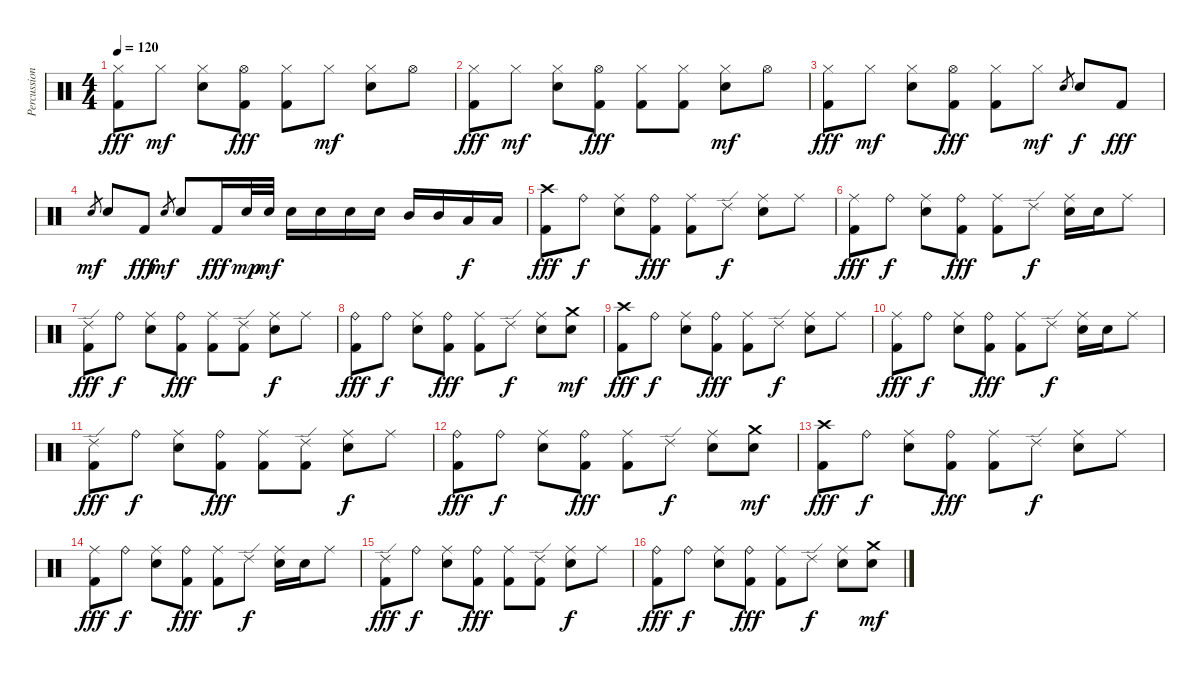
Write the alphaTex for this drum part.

\track ("Percussion" "Percussion") {instrument percussion}
\staff {score}
\articulation defaults
\ts (4 4)
\tempo 120
\clef neutral
\ks c
("Hi-Hat (closed)" "Kick (hit) 2").8{dy fff} "Hi-Hat (closed)".8{dy mf} ("Hi-Hat (closed)" "Electric Snare (hit)").8 ("Hi-Hat (open)" "Kick (hit) 2").8{dy fff} ("Hi-Hat (closed)" "Kick (hit) 2").8 "Hi-Hat (closed)".8{dy mf} ("Hi-Hat (closed)" "Electric Snare (hit)").8 "Hi-Hat (open)".8 |
("Hi-Hat (closed)" "Kick (hit) 2").8{dy fff} "Hi-Hat (closed)".8{dy mf} ("Hi-Hat (closed)" "Electric Snare (hit)").8 ("Hi-Hat (open)" "Kick (hit) 2").8{dy fff} ("Hi-Hat (closed)" "Kick (hit) 2").8 ("Hi-Hat (closed)" "Kick (hit) 2").8 ("Hi-Hat (closed)" "Electric Snare (hit)").8{dy mf} "Hi-Hat (open)".8 |
("Hi-Hat (closed)" "Kick (hit) 2").8{dy fff} "Hi-Hat (closed)".8{dy mf} ("Hi-Hat (closed)" "Electric Snare (hit)").8 ("Hi-Hat (open)" "Kick (hit) 2").8{dy fff} ("Hi-Hat (closed)" "Kick (hit) 2").8 "Hi-Hat (closed)".8{dy mf} "Electric Snare (hit)".8{gr} "Electric Snare (hit)".8{dy f} "Kick (hit) 2".8{dy fff} |
"Electric Snare (hit)".8{gr dy mf} "Electric Snare (hit)".8 "Kick (hit) 2".8{dy fff} "Electric Snare (hit)".8{gr dy mf} "Electric Snare (hit)".8 "Kick (hit) 2".16{dy fff} "Electric Snare (hit)".32{dy mp} "Electric Snare (hit)".32{dy mf} "Electric Snare (hit)".16 "Electric Snare (hit)".16 "Electric Snare (hit)".16 "Electric Snare (hit)".16 "Mid Tom (hit)".16 "Mid Tom (hit)".16 "Low Tom (hit)".16{dy f} "Low Tom (hit)".16 |
("Crash high (hit)" "Kick (hit) 2").8{dy fff} "Ride (bell)".8{dy f} ("Ride (middle)" "Electric Snare (hit)").8 ("Ride (bell)" "Kick (hit) 2").8{dy fff} ("Ride (middle)" "Kick (hit) 2").8 "Ride (edge) 2".8{dy f} ("Ride (middle)" "Electric Snare (hit)").8 "Ride (middle)".8 |
("Ride (middle)" "Kick (hit) 2").8{dy fff} "Ride (bell)".8{dy f} ("Ride (middle)" "Electric Snare (hit)").8 ("Ride (bell)" "Kick (hit) 2").8{dy fff} ("Ride (middle)" "Kick (hit) 2").8 "Ride (edge) 2".8{dy f} ("Ride (middle)" "Electric Snare (hit)").16 "Electric Snare (hit)".16 "Ride (middle)".8 |
("Ride (edge) 2" "Kick (hit) 2").8{dy fff} "Ride (bell)".8{dy f} ("Ride (middle)" "Electric Snare (hit)").8 ("Ride (bell)" "Kick (hit) 2").8{dy fff} ("Ride (middle)" "Kick (hit) 2").8 ("Ride (edge) 2" "Kick (hit) 2").8 ("Ride (middle)" "Electric Snare (hit)").8{dy f} "Ride (middle)".8 |
("Ride (bell)" "Kick (hit) 2").8{dy fff} "Ride (bell)".8{dy f} ("Ride (middle)" "Electric Snare (hit)").8 ("Ride (bell)" "Kick (hit) 2").8{dy fff} ("Ride (middle)" "Kick (hit) 2").8 "Ride (edge) 2".8{dy f} ("Ride (middle)" "Electric Snare (hit)").8 ("Crash medium (hit)" "Electric Snare (hit)").8{dy mf} |
("Crash high (hit)" "Kick (hit) 2").8{dy fff} "Ride (bell)".8{dy f} ("Ride (middle)" "Electric Snare (hit)").8 ("Ride (bell)" "Kick (hit) 2").8{dy fff} ("Ride (middle)" "Kick (hit) 2").8 "Ride (edge) 2".8{dy f} ("Ride (middle)" "Electric Snare (hit)").8 "Ride (middle)".8 |
("Ride (middle)" "Kick (hit) 2").8{dy fff} "Ride (bell)".8{dy f} ("Ride (middle)" "Electric Snare (hit)").8 ("Ride (bell)" "Kick (hit) 2").8{dy fff} ("Ride (middle)" "Kick (hit) 2").8 "Ride (edge) 2".8{dy f} ("Ride (middle)" "Electric Snare (hit)").16 "Electric Snare (hit)".16 "Ride (middle)".8 |
("Ride (edge) 2" "Kick (hit) 2").8{dy fff} "Ride (bell)".8{dy f} ("Ride (middle)" "Electric Snare (hit)").8 ("Ride (bell)" "Kick (hit) 2").8{dy fff} ("Ride (middle)" "Kick (hit) 2").8 ("Ride (edge) 2" "Kick (hit) 2").8 ("Ride (middle)" "Electric Snare (hit)").8{dy f} "Ride (middle)".8 |
("Ride (bell)" "Kick (hit) 2").8{dy fff} "Ride (bell)".8{dy f} ("Ride (middle)" "Electric Snare (hit)").8 ("Ride (bell)" "Kick (hit) 2").8{dy fff} ("Ride (middle)" "Kick (hit) 2").8 "Ride (edge) 2".8{dy f} ("Ride (middle)" "Electric Snare (hit)").8 ("Crash medium (hit)" "Electric Snare (hit)").8{dy mf} |
("Crash high (hit)" "Kick (hit) 2").8{dy fff} "Ride (bell)".8{dy f} ("Ride (middle)" "Electric Snare (hit)").8 ("Ride (bell)" "Kick (hit) 2").8{dy fff} ("Ride (middle)" "Kick (hit) 2").8 "Ride (edge) 2".8{dy f} ("Ride (middle)" "Electric Snare (hit)").8 "Ride (middle)".8 |
("Ride (middle)" "Kick (hit) 2").8{dy fff} "Ride (bell)".8{dy f} ("Ride (middle)" "Electric Snare (hit)").8 ("Ride (bell)" "Kick (hit) 2").8{dy fff} ("Ride (middle)" "Kick (hit) 2").8 "Ride (edge) 2".8{dy f} ("Ride (middle)" "Electric Snare (hit)").16 "Electric Snare (hit)".16 "Ride (middle)".8 |
("Ride (edge) 2" "Kick (hit) 2").8{dy fff} "Ride (bell)".8{dy f} ("Ride (middle)" "Electric Snare (hit)").8 ("Ride (bell)" "Kick (hit) 2").8{dy fff} ("Ride (middle)" "Kick (hit) 2").8 ("Ride (edge) 2" "Kick (hit) 2").8 ("Ride (middle)" "Electric Snare (hit)").8{dy f} "Ride (middle)".8 |
("Ride (bell)" "Kick (hit) 2").8{dy fff} "Ride (bell)".8{dy f} ("Ride (middle)" "Electric Snare (hit)").8 ("Ride (bell)" "Kick (hit) 2").8{dy fff} ("Ride (middle)" "Kick (hit) 2").8 "Ride (edge) 2".8{dy f} ("Ride (middle)" "Electric Snare (hit)").8 ("Crash medium (hit)" "Electric Snare (hit)").8{dy mf}
